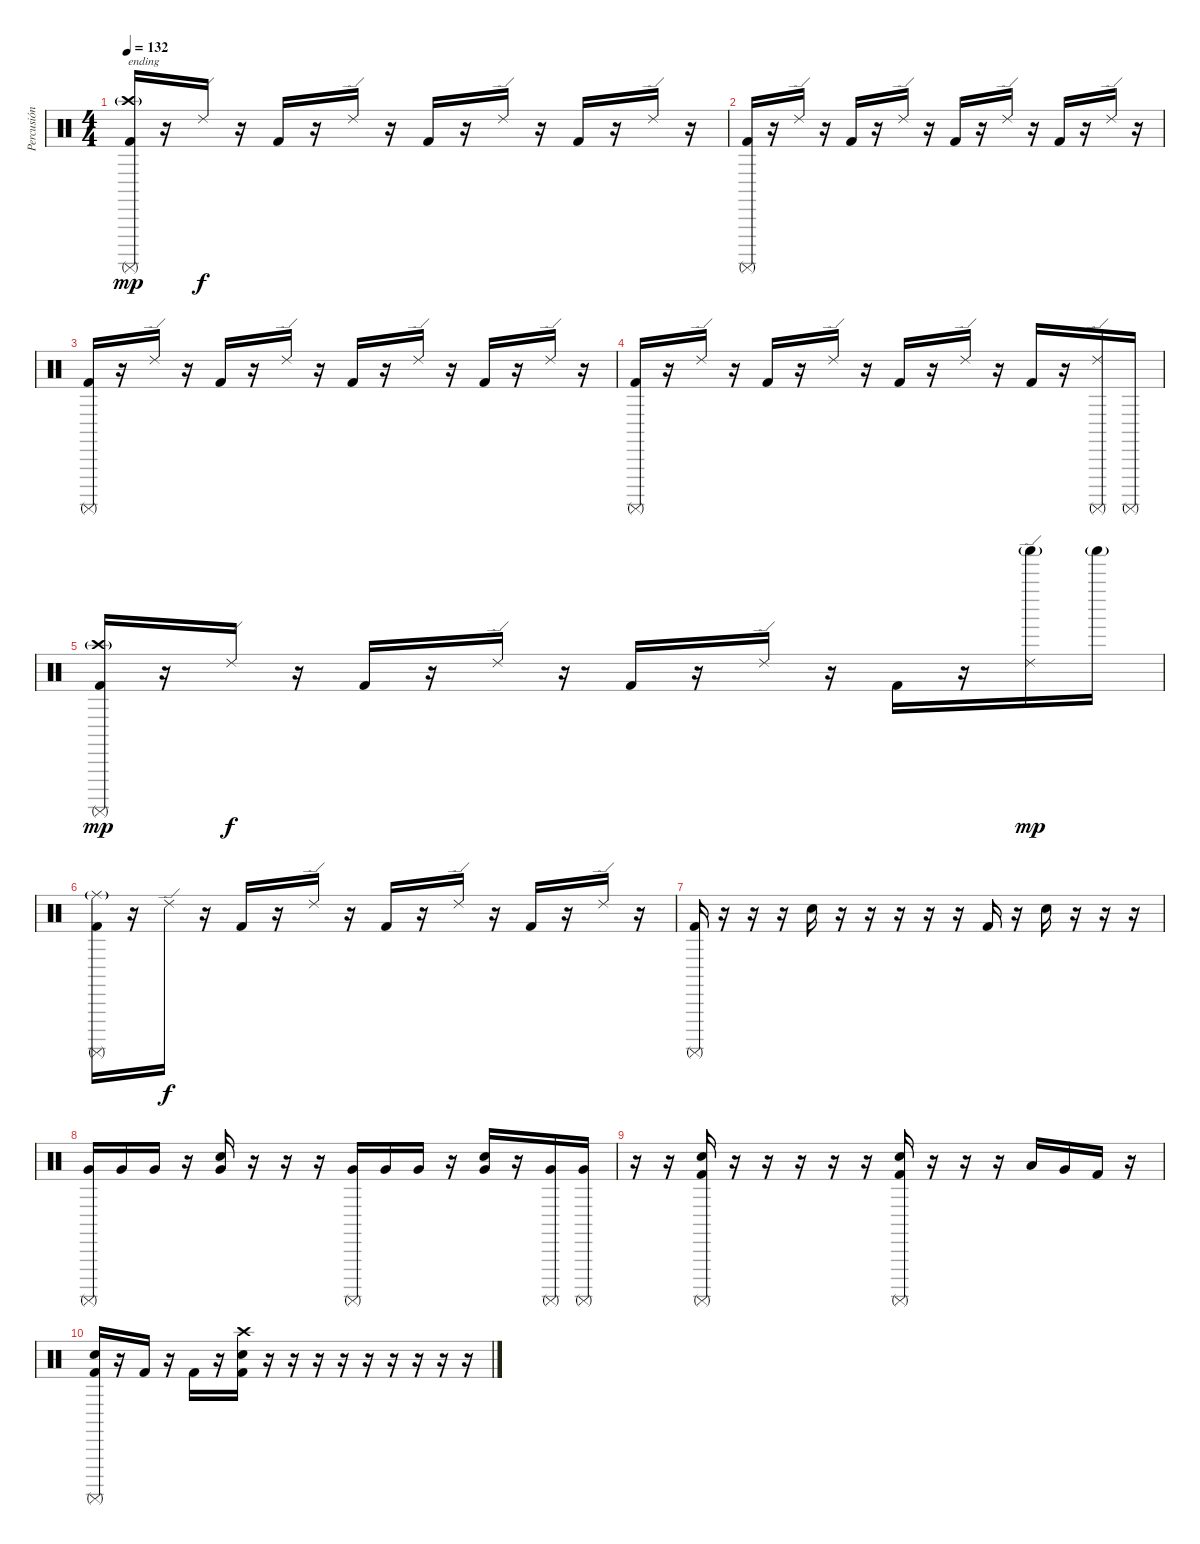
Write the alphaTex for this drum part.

\track ("Percusión" "Percusión") {instrument percussion}
\staff {score}
\articulation defaults
\ts (4 4)
\tempo 132
\clef neutral
\ks c
("Crash high (hit)"{g} "Kick (hit) 2" "Surdo (mute)").16{txt "ending" dy mp} r.16 "Ride (edge) 2".16{dy f} r.16 "Kick (hit) 2".16 r.16 "Ride (edge) 2".16 r.16 "Kick (hit) 2".16 r.16 "Ride (edge) 2".16 r.16 "Kick (hit) 2".16 r.16 "Ride (edge) 2".16 r.16 |
("Kick (hit) 2" "Surdo (mute)").16 r.16 "Ride (edge) 2".16 r.16 "Kick (hit) 2".16 r.16 "Ride (edge) 2".16 r.16 "Kick (hit) 2".16 r.16 "Ride (edge) 2".16 r.16 "Kick (hit) 2".16 r.16 "Ride (edge) 2".16 r.16 |
("Kick (hit) 2" "Surdo (mute)").16 r.16 "Ride (edge) 2".16 r.16 "Kick (hit) 2".16 r.16 "Ride (edge) 2".16 r.16 "Kick (hit) 2".16 r.16 "Ride (edge) 2".16 r.16 "Kick (hit) 2".16 r.16 "Ride (edge) 2".16 r.16 |
("Kick (hit) 2" "Surdo (mute)").16 r.16 "Ride (edge) 2".16 r.16 "Kick (hit) 2".16 r.16 "Ride (edge) 2".16 r.16 "Kick (hit) 2".16 r.16 "Ride (edge) 2".16 r.16 "Kick (hit) 2".16 r.16 ("Ride (edge) 2" "Surdo (mute)").16 "Surdo (mute)".16 |
("Crash high (hit)"{g} "Kick (hit) 2" "Surdo (mute)").16{dy mp} r.16 "Ride (edge) 2".16{dy f} r.16 "Kick (hit) 2".16 r.16 "Ride (edge) 2".16 r.16 "Kick (hit) 2".16 r.16 "Ride (edge) 2".16 r.16 "Kick (hit) 2".16 r.16 ("Ride (edge) 2" "Shaker (hit)"{g}).16{dy mp} "Shaker (hit)"{g}.16 |
("Kick (hit) 2" "Surdo (mute)" "Ride (middle)"{g}).16 r.16 "Ride (edge) 2".16{dy f} r.16 "Kick (hit) 2".16 r.16 "Ride (edge) 2".16 r.16 "Kick (hit) 2".16 r.16 "Ride (edge) 2".16 r.16 "Kick (hit) 2".16 r.16 "Ride (edge) 2".16 r.16 |
("Kick (hit) 2" "Surdo (mute)").16 r.16 r.16 r.16 "Electric Snare (hit)".16 r.16 r.16 r.16 r.16 r.16 "Kick (hit) 2".16 r.16 "Electric Snare (hit)".16 r.16 r.16 r.16 |
("Very Low Tom (hit)" "Surdo (mute)").16 "Very Low Tom (hit)".16 "Very Low Tom (hit)".16 r.16 ("Very Low Tom (hit)" "Electric Snare (hit)").16 r.16 r.16 r.16 ("Very Low Tom (hit)" "Surdo (mute)").16 "Very Low Tom (hit)".16 "Very Low Tom (hit)".16 r.16 ("Very Low Tom (hit)" "Electric Snare (hit)").16 r.16 ("Very Low Tom (hit)" "Surdo (mute)").16 ("Very Low Tom (hit)" "Surdo (mute)").16 |
r.16 r.16 ("Kick (hit) 2" "Snare (hit) 2" "Surdo (mute)").16 r.16 r.16 r.16 r.16 r.16 ("Kick (hit) 2" "Snare (hit) 2" "Surdo (mute)").16 r.16 r.16 r.16 "Low Tom (hit)".16 "Very Low Tom (hit)".16 "Kick (hit) 2".16 r.16 |
("Surdo (mute)" "Kick (hit) 2" "Snare (hit) 2").16 r.16 "Kick (hit) 2".16 r.16 "Kick (hit) 2".16 r.16 ("Crash high (hit)" "Kick (hit) 2" "Snare (hit) 2").16 r.16 r.16 r.16 r.16 r.16 r.16 r.16 r.16 r.16
